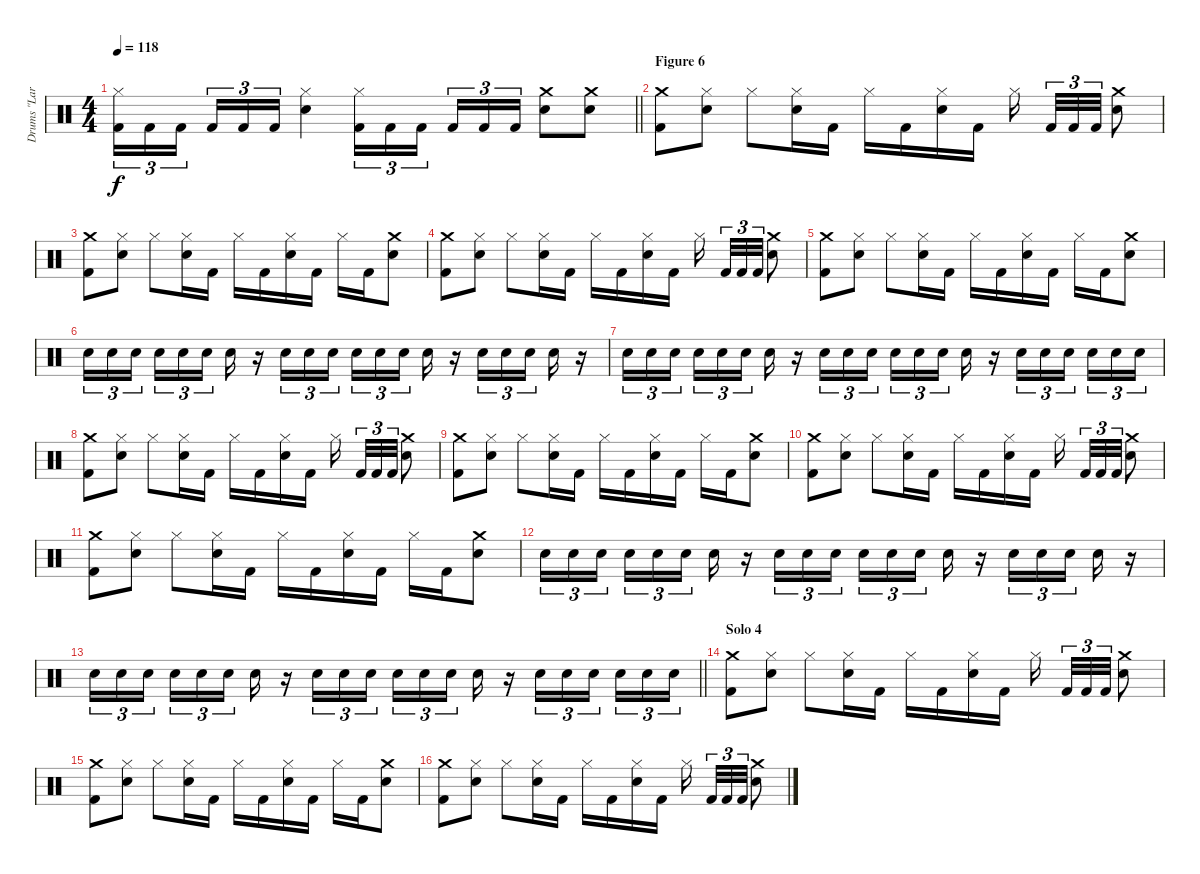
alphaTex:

\track ("Drums \"Lars Ulrich\"" "Drums \"Lar") {instrument percussion}
\staff {score}
\articulation defaults
\ts (4 4)
\tempo 118
\clef neutral
\barLineRight lightlight
\ks c
("Hi-Hat (closed)" "Kick (hit) 2").16{tu (3 2) dy f} "Kick (hit) 2".16{tu (3 2)} "Kick (hit) 2".16{tu (3 2) beam splitsecondary} "Kick (hit) 2".16{tu (3 2)} "Kick (hit) 2".16{tu (3 2)} "Kick (hit) 2".16{tu (3 2)} ("Hi-Hat (closed)" "Electric Snare (hit)").4 ("Hi-Hat (closed)" "Kick (hit) 2").16{tu (3 2)} "Kick (hit) 2".16{tu (3 2)} "Kick (hit) 2".16{tu (3 2) beam splitsecondary} "Kick (hit) 2".16{tu (3 2)} "Kick (hit) 2".16{tu (3 2)} "Kick (hit) 2".16{tu (3 2)} ("Crash medium (hit)" "Electric Snare (hit)").8 ("Crash medium (hit)" "Electric Snare (hit)").8 |
\section ("" "Figure 6")
("Crash medium (hit)" "Kick (hit) 2").8 ("Hi-Hat (closed)" "Electric Snare (hit)").8 "Hi-Hat (closed)".8 ("Hi-Hat (closed)" "Electric Snare (hit)").16 "Kick (hit) 2".16 "Hi-Hat (closed)".16 "Kick (hit) 2".16 ("Hi-Hat (closed)" "Electric Snare (hit)").16 "Kick (hit) 2".16 "Hi-Hat (closed)".16{beam splitsecondary} "Kick (hit) 2".32{tu (3 2)} "Kick (hit) 2".32{tu (3 2)} "Kick (hit) 2".32{tu (3 2)} ("Crash medium (hit)" "Electric Snare (hit)").8 |
("Crash medium (hit)" "Kick (hit) 2").8 ("Hi-Hat (closed)" "Electric Snare (hit)").8 "Hi-Hat (closed)".8 ("Hi-Hat (closed)" "Electric Snare (hit)").16 "Kick (hit) 2".16 "Hi-Hat (closed)".16 "Kick (hit) 2".16 ("Hi-Hat (closed)" "Electric Snare (hit)").16 "Kick (hit) 2".16 "Hi-Hat (closed)".16 "Kick (hit) 2".16 ("Crash medium (hit)" "Electric Snare (hit)").8 |
("Crash medium (hit)" "Kick (hit) 2").8 ("Hi-Hat (closed)" "Electric Snare (hit)").8 "Hi-Hat (closed)".8 ("Hi-Hat (closed)" "Electric Snare (hit)").16 "Kick (hit) 2".16 "Hi-Hat (closed)".16 "Kick (hit) 2".16 ("Hi-Hat (closed)" "Electric Snare (hit)").16 "Kick (hit) 2".16 "Hi-Hat (closed)".16{beam splitsecondary} "Kick (hit) 2".32{tu (3 2)} "Kick (hit) 2".32{tu (3 2)} "Kick (hit) 2".32{tu (3 2)} ("Crash medium (hit)" "Electric Snare (hit)").8 |
("Crash medium (hit)" "Kick (hit) 2").8 ("Hi-Hat (closed)" "Electric Snare (hit)").8 "Hi-Hat (closed)".8 ("Hi-Hat (closed)" "Electric Snare (hit)").16 "Kick (hit) 2".16 "Hi-Hat (closed)".16 "Kick (hit) 2".16 ("Hi-Hat (closed)" "Electric Snare (hit)").16 "Kick (hit) 2".16 "Hi-Hat (closed)".16 "Kick (hit) 2".16 ("Crash medium (hit)" "Electric Snare (hit)").8 |
"Electric Snare (hit)".16{tu (3 2)} "Electric Snare (hit)".16{tu (3 2)} "Electric Snare (hit)".16{tu (3 2) beam splitsecondary} "Electric Snare (hit)".16{tu (3 2)} "Electric Snare (hit)".16{tu (3 2)} "Electric Snare (hit)".16{tu (3 2)} "Electric Snare (hit)".16 r.16 "Electric Snare (hit)".16{tu (3 2)} "Electric Snare (hit)".16{tu (3 2)} "Electric Snare (hit)".16{tu (3 2)} "Electric Snare (hit)".16{tu (3 2)} "Electric Snare (hit)".16{tu (3 2)} "Electric Snare (hit)".16{tu (3 2) beam splitsecondary} "Electric Snare (hit)".16 r.16 "Electric Snare (hit)".16{tu (3 2)} "Electric Snare (hit)".16{tu (3 2)} "Electric Snare (hit)".16{tu (3 2) beam splitsecondary} "Electric Snare (hit)".16 r.16 |
"Electric Snare (hit)".16{tu (3 2)} "Electric Snare (hit)".16{tu (3 2)} "Electric Snare (hit)".16{tu (3 2) beam splitsecondary} "Electric Snare (hit)".16{tu (3 2)} "Electric Snare (hit)".16{tu (3 2)} "Electric Snare (hit)".16{tu (3 2)} "Electric Snare (hit)".16 r.16 "Electric Snare (hit)".16{tu (3 2)} "Electric Snare (hit)".16{tu (3 2)} "Electric Snare (hit)".16{tu (3 2)} "Electric Snare (hit)".16{tu (3 2)} "Electric Snare (hit)".16{tu (3 2)} "Electric Snare (hit)".16{tu (3 2) beam splitsecondary} "Electric Snare (hit)".16 r.16 "Electric Snare (hit)".16{tu (3 2)} "Electric Snare (hit)".16{tu (3 2)} "Electric Snare (hit)".16{tu (3 2) beam splitsecondary} "Electric Snare (hit)".16{tu (3 2)} "Electric Snare (hit)".16{tu (3 2)} "Electric Snare (hit)".16{tu (3 2)} |
("Crash medium (hit)" "Kick (hit) 2").8 ("Hi-Hat (closed)" "Electric Snare (hit)").8 "Hi-Hat (closed)".8 ("Hi-Hat (closed)" "Electric Snare (hit)").16 "Kick (hit) 2".16 "Hi-Hat (closed)".16 "Kick (hit) 2".16 ("Hi-Hat (closed)" "Electric Snare (hit)").16 "Kick (hit) 2".16 "Hi-Hat (closed)".16{beam splitsecondary} "Kick (hit) 2".32{tu (3 2)} "Kick (hit) 2".32{tu (3 2)} "Kick (hit) 2".32{tu (3 2)} ("Crash medium (hit)" "Electric Snare (hit)").8 |
("Crash medium (hit)" "Kick (hit) 2").8 ("Hi-Hat (closed)" "Electric Snare (hit)").8 "Hi-Hat (closed)".8 ("Hi-Hat (closed)" "Electric Snare (hit)").16 "Kick (hit) 2".16 "Hi-Hat (closed)".16 "Kick (hit) 2".16 ("Hi-Hat (closed)" "Electric Snare (hit)").16 "Kick (hit) 2".16 "Hi-Hat (closed)".16 "Kick (hit) 2".16 ("Crash medium (hit)" "Electric Snare (hit)").8 |
("Crash medium (hit)" "Kick (hit) 2").8 ("Hi-Hat (closed)" "Electric Snare (hit)").8 "Hi-Hat (closed)".8 ("Hi-Hat (closed)" "Electric Snare (hit)").16 "Kick (hit) 2".16 "Hi-Hat (closed)".16 "Kick (hit) 2".16 ("Hi-Hat (closed)" "Electric Snare (hit)").16 "Kick (hit) 2".16 "Hi-Hat (closed)".16{beam splitsecondary} "Kick (hit) 2".32{tu (3 2)} "Kick (hit) 2".32{tu (3 2)} "Kick (hit) 2".32{tu (3 2)} ("Crash medium (hit)" "Electric Snare (hit)").8 |
("Crash medium (hit)" "Kick (hit) 2").8 ("Hi-Hat (closed)" "Electric Snare (hit)").8 "Hi-Hat (closed)".8 ("Hi-Hat (closed)" "Electric Snare (hit)").16 "Kick (hit) 2".16 "Hi-Hat (closed)".16 "Kick (hit) 2".16 ("Hi-Hat (closed)" "Electric Snare (hit)").16 "Kick (hit) 2".16 "Hi-Hat (closed)".16 "Kick (hit) 2".16 ("Crash medium (hit)" "Electric Snare (hit)").8 |
"Electric Snare (hit)".16{tu (3 2)} "Electric Snare (hit)".16{tu (3 2)} "Electric Snare (hit)".16{tu (3 2) beam splitsecondary} "Electric Snare (hit)".16{tu (3 2)} "Electric Snare (hit)".16{tu (3 2)} "Electric Snare (hit)".16{tu (3 2)} "Electric Snare (hit)".16 r.16 "Electric Snare (hit)".16{tu (3 2)} "Electric Snare (hit)".16{tu (3 2)} "Electric Snare (hit)".16{tu (3 2)} "Electric Snare (hit)".16{tu (3 2)} "Electric Snare (hit)".16{tu (3 2)} "Electric Snare (hit)".16{tu (3 2) beam splitsecondary} "Electric Snare (hit)".16 r.16 "Electric Snare (hit)".16{tu (3 2)} "Electric Snare (hit)".16{tu (3 2)} "Electric Snare (hit)".16{tu (3 2) beam splitsecondary} "Electric Snare (hit)".16 r.16 |
\barLineRight lightlight "Electric Snare (hit)".16{tu (3 2)} "Electric Snare (hit)".16{tu (3 2)} "Electric Snare (hit)".16{tu (3 2) beam splitsecondary} "Electric Snare (hit)".16{tu (3 2)} "Electric Snare (hit)".16{tu (3 2)} "Electric Snare (hit)".16{tu (3 2)} "Electric Snare (hit)".16
r.16 "Electric Snare (hit)".16{tu (3 2)} "Electric Snare (hit)".16{tu (3 2)} "Electric Snare (hit)".16{tu (3 2)} "Electric Snare (hit)".16{tu (3 2)} "Electric Snare (hit)".16{tu (3 2)} "Electric Snare (hit)".16{tu (3 2) beam splitsecondary} "Electric Snare (hit)".16 r.16 "Electric Snare (hit)".16{tu (3 2)} "Electric Snare (hit)".16{tu (3 2)} "Electric Snare (hit)".16{tu (3 2) beam splitsecondary} "Electric Snare (hit)".16{tu (3 2)} "Electric Snare (hit)".16{tu (3 2)} "Electric Snare (hit)".16{tu (3 2)} |
\section ("" "Solo 4")
("Crash medium (hit)" "Kick (hit) 2").8 ("Hi-Hat (closed)" "Electric Snare (hit)").8 "Hi-Hat (closed)".8 ("Hi-Hat (closed)" "Electric Snare (hit)").16 "Kick (hit) 2".16 "Hi-Hat (closed)".16 "Kick (hit) 2".16 ("Hi-Hat (closed)" "Electric Snare (hit)").16 "Kick (hit) 2".16 "Hi-Hat (closed)".16{beam splitsecondary} "Kick (hit) 2".32{tu (3 2)} "Kick (hit) 2".32{tu (3 2)} "Kick (hit) 2".32{tu (3 2)} ("Crash medium (hit)" "Electric Snare (hit)").8 |
("Crash medium (hit)" "Kick (hit) 2").8 ("Hi-Hat (closed)" "Electric Snare (hit)").8 "Hi-Hat (closed)".8 ("Hi-Hat (closed)" "Electric Snare (hit)").16 "Kick (hit) 2".16 "Hi-Hat (closed)".16 "Kick (hit) 2".16 ("Hi-Hat (closed)" "Electric Snare (hit)").16 "Kick (hit) 2".16 "Hi-Hat (closed)".16 "Kick (hit) 2".16 ("Crash medium (hit)" "Electric Snare (hit)").8 |
("Crash medium (hit)" "Kick (hit) 2").8 ("Hi-Hat (closed)" "Electric Snare (hit)").8 "Hi-Hat (closed)".8 ("Hi-Hat (closed)" "Electric Snare (hit)").16 "Kick (hit) 2".16 "Hi-Hat (closed)".16 "Kick (hit) 2".16 ("Hi-Hat (closed)" "Electric Snare (hit)").16 "Kick (hit) 2".16 "Hi-Hat (closed)".16{beam splitsecondary} "Kick (hit) 2".32{tu (3 2)} "Kick (hit) 2".32{tu (3 2)} "Kick (hit) 2".32{tu (3 2)} ("Crash medium (hit)" "Electric Snare (hit)").8
